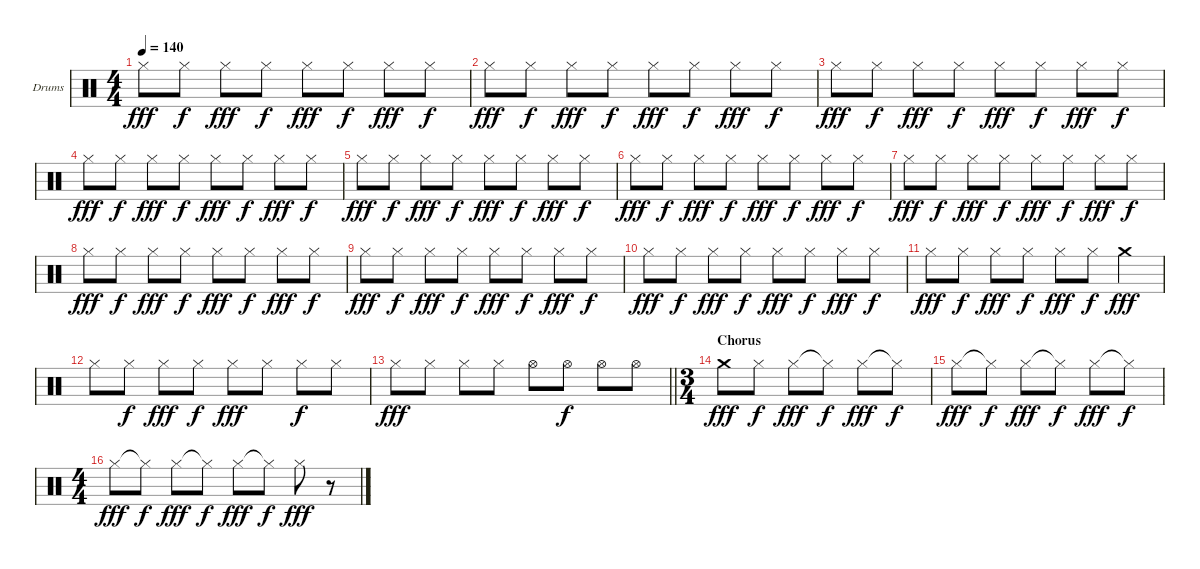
\bracketExtendMode groupsimilarinstruments
\firstSystemTrackNameOrientation horizontal
\otherSystemsTrackNameOrientation horizontal
\track ("Drumkit" "Drums") {instrument percussion}
\staff {score}
\articulation defaults
\ts (4 4)
\tempo 140
\clef neutral
\ks c "Hi-Hat (closed)".8{dy fff} "Hi-Hat (closed)".8{dy f} "Hi-Hat (closed)".8{dy fff} "Hi-Hat (closed)".8{dy f} "Hi-Hat (closed)".8{dy fff} "Hi-Hat (closed)".8{dy f} "Hi-Hat (closed)".8{dy fff} "Hi-Hat (closed)".8{dy f}
|
"Hi-Hat (closed)".8{dy fff} "Hi-Hat (closed)".8{dy f} "Hi-Hat (closed)".8{dy fff} "Hi-Hat (closed)".8{dy f} "Hi-Hat (closed)".8{dy fff} "Hi-Hat (closed)".8{dy f} "Hi-Hat (closed)".8{dy fff} "Hi-Hat (closed)".8{dy f} |
"Hi-Hat (closed)".8{dy fff} "Hi-Hat (closed)".8{dy f} "Hi-Hat (closed)".8{dy fff} "Hi-Hat (closed)".8{dy f} "Hi-Hat (closed)".8{dy fff} "Hi-Hat (closed)".8{dy f} "Hi-Hat (closed)".8{dy fff} "Hi-Hat (closed)".8{dy f} |
"Hi-Hat (closed)".8{dy fff} "Hi-Hat (closed)".8{dy f} "Hi-Hat (closed)".8{dy fff} "Hi-Hat (closed)".8{dy f} "Hi-Hat (closed)".8{dy fff} "Hi-Hat (closed)".8{dy f} "Hi-Hat (closed)".8{dy fff} "Hi-Hat (closed)".8{dy f} |
"Hi-Hat (closed)".8{dy fff} "Hi-Hat (closed)".8{dy f} "Hi-Hat (closed)".8{dy fff} "Hi-Hat (closed)".8{dy f} "Hi-Hat (closed)".8{dy fff} "Hi-Hat (closed)".8{dy f} "Hi-Hat (closed)".8{dy fff} "Hi-Hat (closed)".8{dy f} |
"Hi-Hat (closed)".8{dy fff} "Hi-Hat (closed)".8{dy f} "Hi-Hat (closed)".8{dy fff} "Hi-Hat (closed)".8{dy f} "Hi-Hat (closed)".8{dy fff} "Hi-Hat (closed)".8{dy f} "Hi-Hat (closed)".8{dy fff} "Hi-Hat (closed)".8{dy f} |
"Hi-Hat (closed)".8{dy fff} "Hi-Hat (closed)".8{dy f} "Hi-Hat (closed)".8{dy fff} "Hi-Hat (closed)".8{dy f} "Hi-Hat (closed)".8{dy fff} "Hi-Hat (closed)".8{dy f} "Hi-Hat (closed)".8{dy fff} "Hi-Hat (closed)".8{dy f} |
"Hi-Hat (closed)".8{dy fff} "Hi-Hat (closed)".8{dy f} "Hi-Hat (closed)".8{dy fff} "Hi-Hat (closed)".8{dy f} "Hi-Hat (closed)".8{dy fff} "Hi-Hat (closed)".8{dy f} "Hi-Hat (closed)".8{dy fff} "Hi-Hat (closed)".8{dy f} |
"Hi-Hat (closed)".8{dy fff} "Hi-Hat (closed)".8{dy f} "Hi-Hat (closed)".8{dy fff} "Hi-Hat (closed)".8{dy f} "Hi-Hat (closed)".8{dy fff} "Hi-Hat (closed)".8{dy f} "Hi-Hat (closed)".8{dy fff} "Hi-Hat (closed)".8{dy f} |
"Hi-Hat (closed)".8{dy fff} "Hi-Hat (closed)".8{dy f} "Hi-Hat (closed)".8{dy fff} "Hi-Hat (closed)".8{dy f} "Hi-Hat (closed)".8{dy fff} "Hi-Hat (closed)".8{dy f} "Hi-Hat (closed)".8{dy fff} "Hi-Hat (closed)".8{dy f} |
"Hi-Hat (closed)".8{dy fff} "Hi-Hat (closed)".8{dy f} "Hi-Hat (closed)".8{dy fff} "Hi-Hat (closed)".8{dy f} "Hi-Hat (closed)".8{dy fff} "Hi-Hat (closed)".8{dy f} "Crash medium (hit)".4{dy fff} |
"Hi-Hat (closed)".8 "Hi-Hat (closed)".8{dy f} "Hi-Hat (closed)".8{dy fff} "Hi-Hat (closed)".8{dy f} "Hi-Hat (closed)".8{dy fff} "Hi-Hat (closed)".8 "Hi-Hat (closed)".8{dy f} "Hi-Hat (closed)".8 |
\barLineRight lightlight "Hi-Hat (closed)".8{dy fff} "Hi-Hat (closed)".8 "Hi-Hat (closed)".8 "Hi-Hat (closed)".8 "Hi-Hat (open)".8 "Hi-Hat (open)".8{dy f} "Hi-Hat (open)".8 "Hi-Hat (open)".8
|
\ts (3 4)
\beaming (8 2 2 2)
\section ("" "Chorus")
"Crash medium (hit)".8{dy fff} "Hi-Hat (closed)".8{dy f} "Hi-Hat (closed)".8{dy fff} "Hi-Hat (closed)"{t}.8{dy f} "Hi-Hat (closed)".8{dy fff} "Hi-Hat (closed)"{t}.8{dy f} |
"Hi-Hat (closed)".8{dy fff} "Hi-Hat (closed)"{t}.8{dy f} "Hi-Hat (closed)".8{dy fff} "Hi-Hat (closed)"{t}.8{dy f} "Hi-Hat (closed)".8{dy fff} "Hi-Hat (closed)"{t}.8{dy f} |
\ts (4 4)
\beaming (8 2 2 2 2)
"Hi-Hat (closed)".8{dy fff} "Hi-Hat (closed)"{t}.8{dy f} "Hi-Hat (closed)".8{dy fff} "Hi-Hat (closed)"{t}.8{dy f} "Hi-Hat (closed)".8{dy fff} "Hi-Hat (closed)"{t}.8{dy f} "Hi-Hat (closed)".8{dy fff} r.8
